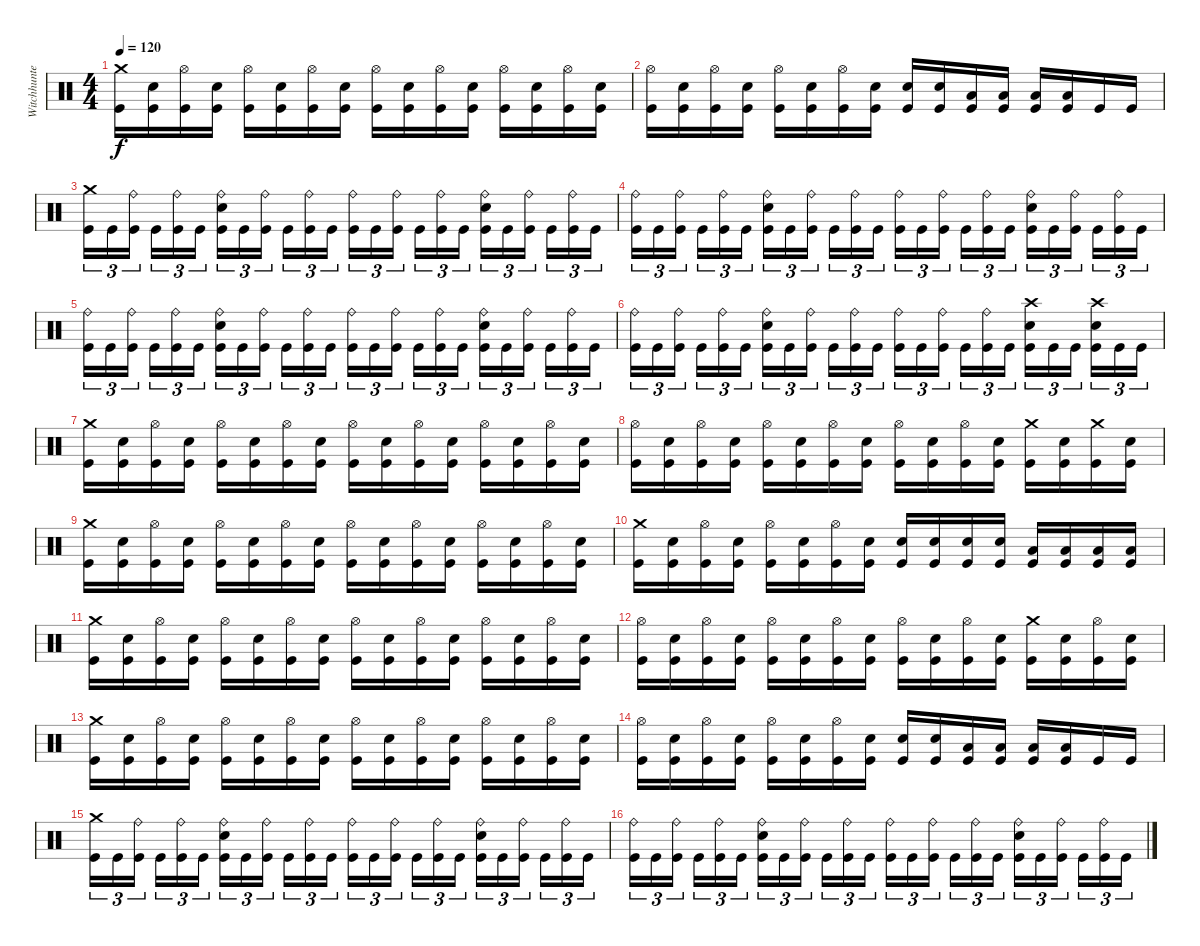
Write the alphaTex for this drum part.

\track ("Witchhunter" "Witchhunte") {instrument percussion}
\staff {score}
\articulation defaults
\ts (4 4)
\tempo 120
\clef neutral
\ks c
("Crash medium (hit)" "Kick (hit)").16{dy f} ("Snare (hit) 2" "Kick (hit)").16 ("Hi-Hat (open)" "Kick (hit)").16 ("Snare (hit) 2" "Kick (hit)").16 ("Hi-Hat (open)" "Kick (hit)").16 ("Snare (hit) 2" "Kick (hit)").16 ("Hi-Hat (open)" "Kick (hit)").16 ("Snare (hit) 2" "Kick (hit)").16 ("Hi-Hat (open)" "Kick (hit)").16 ("Snare (hit) 2" "Kick (hit)").16 ("Hi-Hat (open)" "Kick (hit)").16 ("Snare (hit) 2" "Kick (hit)").16 ("Hi-Hat (open)" "Kick (hit)").16 ("Snare (hit) 2" "Kick (hit)").16 ("Hi-Hat (open)" "Kick (hit)").16 ("Snare (hit) 2" "Kick (hit)").16 |
("Hi-Hat (open)" "Kick (hit)").16 ("Snare (hit) 2" "Kick (hit)").16 ("Hi-Hat (open)" "Kick (hit)").16 ("Snare (hit) 2" "Kick (hit)").16 ("Hi-Hat (open)" "Kick (hit)").16 ("Snare (hit) 2" "Kick (hit)").16 ("Hi-Hat (open)" "Kick (hit)").16 ("Snare (hit) 2" "Kick (hit)").16 ("Snare (hit) 2" "Kick (hit)").16 ("Snare (hit) 2" "Kick (hit)").16 ("Low Tom (hit)" "Kick (hit)").16 ("Low Tom (hit)" "Kick (hit)").16 ("Low Tom (hit)" "Kick (hit)").16 ("Low Tom (hit)" "Kick (hit)").16 "Kick (hit)".16 "Kick (hit)".16 |
("Crash medium (hit)" "Kick (hit)").16{tu (3 2)} "Kick (hit)".16{tu (3 2)} ("Ride (bell)" "Kick (hit)").16{tu (3 2) beam splitsecondary} "Kick (hit)".16{tu (3 2)} ("Ride (bell)" "Kick (hit)").16{tu (3 2)} "Kick (hit)".16{tu (3 2)} ("Ride (bell)" "Snare (hit) 2" "Kick (hit)").16{tu (3 2)} "Kick (hit)".16{tu (3 2)} ("Ride (bell)" "Kick (hit)").16{tu (3 2) beam splitsecondary} "Kick (hit)".16{tu (3 2)} ("Ride (bell)" "Kick (hit)").16{tu (3 2)} "Kick (hit)".16{tu (3 2)} ("Ride (bell)" "Kick (hit)").16{tu (3 2)} "Kick (hit)".16{tu (3 2)} ("Ride (bell)" "Kick (hit)").16{tu (3 2) beam splitsecondary} "Kick (hit)".16{tu (3 2)} ("Ride (bell)" "Kick (hit)").16{tu (3 2)} "Kick (hit)".16{tu (3 2)} ("Ride (bell)" "Snare (hit) 2" "Kick (hit)").16{tu (3 2)} "Kick (hit)".16{tu (3 2)} ("Ride (bell)" "Kick (hit)").16{tu (3 2) beam splitsecondary} "Kick (hit)".16{tu (3 2)} ("Ride (bell)" "Kick (hit)").16{tu (3 2)} "Kick (hit)".16{tu (3 2)} |
("Ride (bell)" "Kick (hit)").16{tu (3 2)} "Kick (hit)".16{tu (3 2)} ("Ride (bell)" "Kick (hit)").16{tu (3 2) beam splitsecondary} "Kick (hit)".16{tu (3 2)} ("Ride (bell)" "Kick (hit)").16{tu (3 2)} "Kick (hit)".16{tu (3 2)} ("Ride (bell)" "Snare (hit) 2" "Kick (hit)").16{tu (3 2)} "Kick (hit)".16{tu (3 2)} ("Ride (bell)" "Kick (hit)").16{tu (3 2) beam splitsecondary} "Kick (hit)".16{tu (3 2)} ("Ride (bell)" "Kick (hit)").16{tu (3 2)} "Kick (hit)".16{tu (3 2)} ("Ride (bell)" "Kick (hit)").16{tu (3 2)} "Kick (hit)".16{tu (3 2)} ("Ride (bell)" "Kick (hit)").16{tu (3 2) beam splitsecondary} "Kick (hit)".16{tu (3 2)} ("Ride (bell)" "Kick (hit)").16{tu (3 2)} "Kick (hit)".16{tu (3 2)} ("Ride (bell)" "Snare (hit) 2" "Kick (hit)").16{tu (3 2)} "Kick (hit)".16{tu (3 2)} ("Ride (bell)" "Kick (hit)").16{tu (3 2) beam splitsecondary} "Kick (hit)".16{tu (3 2)} ("Ride (bell)" "Kick (hit)").16{tu (3 2)} "Kick (hit)".16{tu (3 2)} |
("Ride (bell)" "Kick (hit)").16{tu (3 2)} "Kick (hit)".16{tu (3 2)} ("Ride (bell)" "Kick (hit)").16{tu (3 2) beam splitsecondary} "Kick (hit)".16{tu (3 2)} ("Ride (bell)" "Kick (hit)").16{tu (3 2)} "Kick (hit)".16{tu (3 2)} ("Ride (bell)" "Snare (hit) 2" "Kick (hit)").16{tu (3 2)} "Kick (hit)".16{tu (3 2)} ("Ride (bell)" "Kick (hit)").16{tu (3 2) beam splitsecondary} "Kick (hit)".16{tu (3 2)} ("Ride (bell)" "Kick (hit)").16{tu (3 2)} "Kick (hit)".16{tu (3 2)} ("Ride (bell)" "Kick (hit)").16{tu (3 2)} "Kick (hit)".16{tu (3 2)} ("Ride (bell)" "Kick (hit)").16{tu (3 2) beam splitsecondary} "Kick (hit)".16{tu (3 2)} ("Ride (bell)" "Kick (hit)").16{tu (3 2)} "Kick (hit)".16{tu (3 2)} ("Ride (bell)" "Snare (hit) 2" "Kick (hit)").16{tu (3 2)} "Kick (hit)".16{tu (3 2)} ("Ride (bell)" "Kick (hit)").16{tu (3 2) beam splitsecondary} "Kick (hit)".16{tu (3 2)} ("Ride (bell)" "Kick (hit)").16{tu (3 2)} "Kick (hit)".16{tu (3 2)} |
("Ride (bell)" "Kick (hit)").16{tu (3 2)} "Kick (hit)".16{tu (3 2)} ("Ride (bell)" "Kick (hit)").16{tu (3 2) beam splitsecondary} "Kick (hit)".16{tu (3 2)} ("Ride (bell)" "Kick (hit)").16{tu (3 2)} "Kick (hit)".16{tu (3 2)} ("Ride (bell)" "Snare (hit) 2" "Kick (hit)").16{tu (3 2)} "Kick (hit)".16{tu (3 2)} ("Ride (bell)" "Kick (hit)").16{tu (3 2) beam splitsecondary} "Kick (hit)".16{tu (3 2)} ("Ride (bell)" "Kick (hit)").16{tu (3 2)} "Kick (hit)".16{tu (3 2)} ("Ride (bell)" "Kick (hit)").16{tu (3 2)} "Kick (hit)".16{tu (3 2)} ("Ride (bell)" "Kick (hit)").16{tu (3 2) beam splitsecondary} "Kick (hit)".16{tu (3 2)} ("Ride (bell)" "Kick (hit)").16{tu (3 2)} "Kick (hit)".16{tu (3 2)} ("Crash high (hit)" "Snare (hit) 2" "Kick (hit)").16{tu (3 2)} "Kick (hit)".16{tu (3 2)} "Kick (hit)".16{tu (3 2) beam splitsecondary} ("Crash high (hit)" "Snare (hit) 2" "Kick (hit)").16{tu (3 2)} "Kick (hit)".16{tu (3 2)} "Kick (hit)".16{tu (3 2)} |
("Crash medium (hit)" "Kick (hit)").16 ("Snare (hit) 2" "Kick (hit)").16 ("Hi-Hat (open)" "Kick (hit)").16 ("Snare (hit) 2" "Kick (hit)").16 ("Hi-Hat (open)" "Kick (hit)").16 ("Snare (hit) 2" "Kick (hit)").16 ("Hi-Hat (open)" "Kick (hit)").16 ("Snare (hit) 2" "Kick (hit)").16 ("Hi-Hat (open)" "Kick (hit)").16 ("Snare (hit) 2" "Kick (hit)").16 ("Hi-Hat (open)" "Kick (hit)").16 ("Snare (hit) 2" "Kick (hit)").16 ("Hi-Hat (open)" "Kick (hit)").16 ("Snare (hit) 2" "Kick (hit)").16 ("Hi-Hat (open)" "Kick (hit)").16 ("Snare (hit) 2" "Kick (hit)").16 |
("Hi-Hat (open)" "Kick (hit)").16 ("Snare (hit) 2" "Kick (hit)").16 ("Hi-Hat (open)" "Kick (hit)").16 ("Snare (hit) 2" "Kick (hit)").16 ("Hi-Hat (open)" "Kick (hit)").16 ("Snare (hit) 2" "Kick (hit)").16 ("Hi-Hat (open)" "Kick (hit)").16 ("Snare (hit) 2" "Kick (hit)").16 ("Hi-Hat (open)" "Kick (hit)").16 ("Snare (hit) 2" "Kick (hit)").16 ("Hi-Hat (open)" "Kick (hit)").16 ("Snare (hit) 2" "Kick (hit)").16 ("Crash medium (hit)" "Kick (hit)").16 ("Snare (hit) 2" "Kick (hit)").16 ("Crash medium (hit)" "Kick (hit)").16 ("Snare (hit) 2" "Kick (hit)").16 |
("Crash medium (hit)" "Kick (hit)").16 ("Snare (hit) 2" "Kick (hit)").16 ("Hi-Hat (open)" "Kick (hit)").16 ("Snare (hit) 2" "Kick (hit)").16 ("Hi-Hat (open)" "Kick (hit)").16 ("Snare (hit) 2" "Kick (hit)").16 ("Hi-Hat (open)" "Kick (hit)").16 ("Snare (hit) 2" "Kick (hit)").16 ("Hi-Hat (open)" "Kick (hit)").16 ("Snare (hit) 2" "Kick (hit)").16 ("Hi-Hat (open)" "Kick (hit)").16 ("Snare (hit) 2" "Kick (hit)").16 ("Hi-Hat (open)" "Kick (hit)").16 ("Snare (hit) 2" "Kick (hit)").16 ("Hi-Hat (open)" "Kick (hit)").16 ("Snare (hit) 2" "Kick (hit)").16 |
("Crash medium (hit)" "Kick (hit)").16 ("Snare (hit) 2" "Kick (hit)").16 ("Hi-Hat (open)" "Kick (hit)").16 ("Snare (hit) 2" "Kick (hit)").16 ("Hi-Hat (open)" "Kick (hit)").16 ("Snare (hit) 2" "Kick (hit)").16 ("Hi-Hat (open)" "Kick (hit)").16 ("Snare (hit) 2" "Kick (hit)").16 ("Snare (hit) 2" "Kick (hit)").16 ("Snare (hit) 2" "Kick (hit)").16 ("Snare (hit) 2" "Kick (hit)").16 ("Snare (hit) 2" "Kick (hit)").16 ("Low Tom (hit)" "Kick (hit)").16 ("Low Tom (hit)" "Kick (hit)").16 ("Low Tom (hit)" "Kick (hit)").16 ("Low Tom (hit)" "Kick (hit)").16 |
("Crash medium (hit)" "Kick (hit)").16 ("Snare (hit) 2" "Kick (hit)").16 ("Hi-Hat (open)" "Kick (hit)").16 ("Snare (hit) 2" "Kick (hit)").16 ("Hi-Hat (open)" "Kick (hit)").16 ("Snare (hit) 2" "Kick (hit)").16 ("Hi-Hat (open)" "Kick (hit)").16 ("Snare (hit) 2" "Kick (hit)").16 ("Hi-Hat (open)" "Kick (hit)").16 ("Snare (hit) 2" "Kick (hit)").16 ("Hi-Hat (open)" "Kick (hit)").16 ("Snare (hit) 2" "Kick (hit)").16 ("Hi-Hat (open)" "Kick (hit)").16 ("Snare (hit) 2" "Kick (hit)").16 ("Hi-Hat (open)" "Kick (hit)").16 ("Snare (hit) 2" "Kick (hit)").16 |
("Hi-Hat (open)" "Kick (hit)").16 ("Snare (hit) 2" "Kick (hit)").16 ("Hi-Hat (open)" "Kick (hit)").16 ("Snare (hit) 2" "Kick (hit)").16 ("Hi-Hat (open)" "Kick (hit)").16 ("Snare (hit) 2" "Kick (hit)").16 ("Hi-Hat (open)" "Kick (hit)").16 ("Snare (hit) 2" "Kick (hit)").16 ("Hi-Hat (open)" "Kick (hit)").16 ("Snare (hit) 2" "Kick (hit)").16 ("Hi-Hat (open)" "Kick (hit)").16 ("Snare (hit) 2" "Kick (hit)").16 ("Crash medium (hit)" "Kick (hit)").16 ("Snare (hit) 2" "Kick (hit)").16 ("Hi-Hat (open)" "Kick (hit)").16 ("Snare (hit) 2" "Kick (hit)").16 |
("Crash medium (hit)" "Kick (hit)").16 ("Snare (hit) 2" "Kick (hit)").16 ("Hi-Hat (open)" "Kick (hit)").16 ("Snare (hit) 2" "Kick (hit)").16 ("Hi-Hat (open)" "Kick (hit)").16 ("Snare (hit) 2" "Kick (hit)").16 ("Hi-Hat (open)" "Kick (hit)").16 ("Snare (hit) 2" "Kick (hit)").16 ("Hi-Hat (open)" "Kick (hit)").16 ("Snare (hit) 2" "Kick (hit)").16 ("Hi-Hat (open)" "Kick (hit)").16 ("Snare (hit) 2" "Kick (hit)").16 ("Hi-Hat (open)" "Kick (hit)").16 ("Snare (hit) 2" "Kick (hit)").16 ("Hi-Hat (open)" "Kick (hit)").16 ("Snare (hit) 2" "Kick (hit)").16 |
("Hi-Hat (open)" "Kick (hit)").16 ("Snare (hit) 2" "Kick (hit)").16 ("Hi-Hat (open)" "Kick (hit)").16 ("Snare (hit) 2" "Kick (hit)").16 ("Hi-Hat (open)" "Kick (hit)").16 ("Snare (hit) 2" "Kick (hit)").16 ("Hi-Hat (open)" "Kick (hit)").16 ("Snare (hit) 2" "Kick (hit)").16 ("Snare (hit) 2" "Kick (hit)").16 ("Snare (hit) 2" "Kick (hit)").16 ("Low Tom (hit)" "Kick (hit)").16 ("Low Tom (hit)" "Kick (hit)").16 ("Low Tom (hit)" "Kick (hit)").16 ("Low Tom (hit)" "Kick (hit)").16 "Kick (hit)".16 "Kick (hit)".16 |
("Crash medium (hit)" "Kick (hit)").16{tu (3 2)} "Kick (hit)".16{tu (3 2)} ("Ride (bell)" "Kick (hit)").16{tu (3 2) beam splitsecondary} "Kick (hit)".16{tu (3 2)} ("Ride (bell)" "Kick (hit)").16{tu (3 2)} "Kick (hit)".16{tu (3 2)} ("Ride (bell)" "Snare (hit) 2" "Kick (hit)").16{tu (3 2)} "Kick (hit)".16{tu (3 2)} ("Ride (bell)" "Kick (hit)").16{tu (3 2) beam splitsecondary} "Kick (hit)".16{tu (3 2)} ("Ride (bell)" "Kick (hit)").16{tu (3 2)} "Kick (hit)".16{tu (3 2)} ("Ride (bell)" "Kick (hit)").16{tu (3 2)} "Kick (hit)".16{tu (3 2)} ("Ride (bell)" "Kick (hit)").16{tu (3 2) beam splitsecondary} "Kick (hit)".16{tu (3 2)} ("Ride (bell)" "Kick (hit)").16{tu (3 2)} "Kick (hit)".16{tu (3 2)} ("Ride (bell)" "Snare (hit) 2" "Kick (hit)").16{tu (3 2)} "Kick (hit)".16{tu (3 2)} ("Ride (bell)" "Kick (hit)").16{tu (3 2) beam splitsecondary} "Kick (hit)".16{tu (3 2)} ("Ride (bell)" "Kick (hit)").16{tu (3 2)} "Kick (hit)".16{tu (3 2)} |
("Ride (bell)" "Kick (hit)").16{tu (3 2)} "Kick (hit)".16{tu (3 2)} ("Ride (bell)" "Kick (hit)").16{tu (3 2) beam splitsecondary} "Kick (hit)".16{tu (3 2)} ("Ride (bell)" "Kick (hit)").16{tu (3 2)} "Kick (hit)".16{tu (3 2)} ("Ride (bell)" "Snare (hit) 2" "Kick (hit)").16{tu (3 2)} "Kick (hit)".16{tu (3 2)} ("Ride (bell)" "Kick (hit)").16{tu (3 2) beam splitsecondary} "Kick (hit)".16{tu (3 2)} ("Ride (bell)" "Kick (hit)").16{tu (3 2)} "Kick (hit)".16{tu (3 2)} ("Ride (bell)" "Kick (hit)").16{tu (3 2)} "Kick (hit)".16{tu (3 2)} ("Ride (bell)" "Kick (hit)").16{tu (3 2) beam splitsecondary} "Kick (hit)".16{tu (3 2)} ("Ride (bell)" "Kick (hit)").16{tu (3 2)} "Kick (hit)".16{tu (3 2)} ("Ride (bell)" "Snare (hit) 2" "Kick (hit)").16{tu (3 2)} "Kick (hit)".16{tu (3 2)} ("Ride (bell)" "Kick (hit)").16{tu (3 2) beam splitsecondary} "Kick (hit)".16{tu (3 2)} ("Ride (bell)" "Kick (hit)").16{tu (3 2)} "Kick (hit)".16{tu (3 2)}
